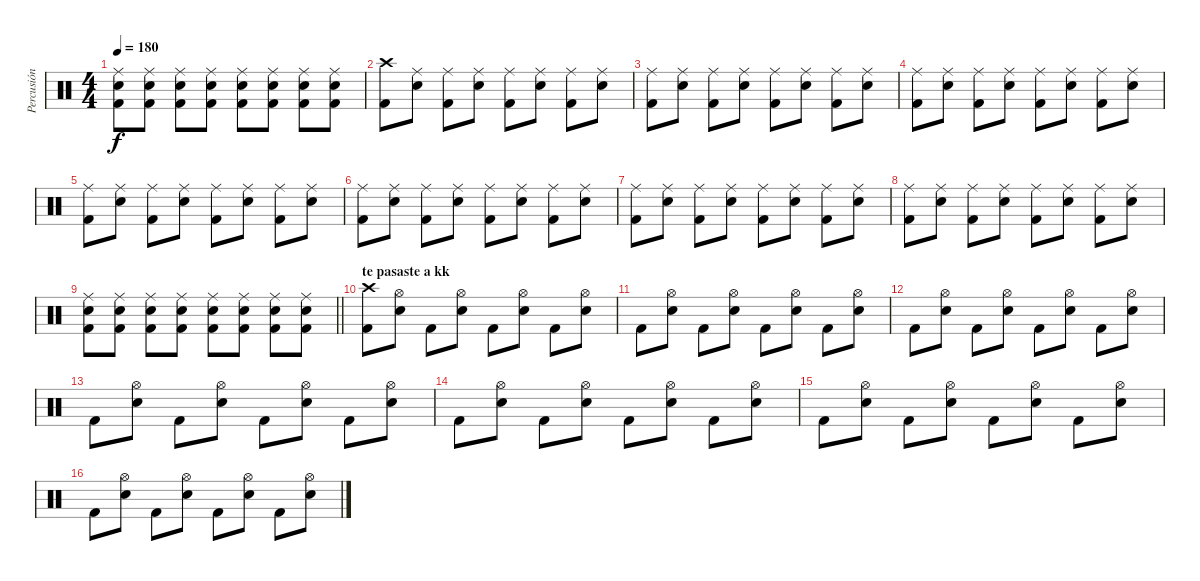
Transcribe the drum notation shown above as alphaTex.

\track ("Percusión" "Percusión") {instrument percussion}
\staff {score}
\articulation defaults
\ts (4 4)
\tempo 180
\clef neutral
\ks c
("Ride (middle)" "Electric Snare (hit)" "Kick (hit) 2").8{dy f} ("Ride (middle)" "Electric Snare (hit)" "Kick (hit) 2").8 ("Ride (middle)" "Electric Snare (hit)" "Kick (hit) 2").8 ("Ride (middle)" "Electric Snare (hit)" "Kick (hit) 2").8 ("Ride (middle)" "Electric Snare (hit)" "Kick (hit) 2").8 ("Ride (middle)" "Electric Snare (hit)" "Kick (hit) 2").8 ("Ride (middle)" "Electric Snare (hit)" "Kick (hit) 2").8 ("Ride (middle)" "Electric Snare (hit)" "Kick (hit) 2").8 |
("Crash high (hit)" "Kick (hit) 2").8 ("Ride (middle)" "Electric Snare (hit)").8 ("Ride (middle)" "Kick (hit) 2").8 ("Ride (middle)" "Electric Snare (hit)").8 ("Ride (middle)" "Kick (hit) 2").8 ("Ride (middle)" "Electric Snare (hit)").8 ("Ride (middle)" "Kick (hit) 2").8 ("Ride (middle)" "Electric Snare (hit)").8 |
("Ride (middle)" "Kick (hit) 2").8 ("Ride (middle)" "Electric Snare (hit)").8 ("Ride (middle)" "Kick (hit) 2").8 ("Ride (middle)" "Electric Snare (hit)").8 ("Ride (middle)" "Kick (hit) 2").8 ("Ride (middle)" "Electric Snare (hit)").8 ("Ride (middle)" "Kick (hit) 2").8 ("Ride (middle)" "Electric Snare (hit)").8 |
("Ride (middle)" "Kick (hit) 2").8 ("Ride (middle)" "Electric Snare (hit)").8 ("Ride (middle)" "Kick (hit) 2").8 ("Ride (middle)" "Electric Snare (hit)").8 ("Ride (middle)" "Kick (hit) 2").8 ("Ride (middle)" "Electric Snare (hit)").8 ("Ride (middle)" "Kick (hit) 2").8 ("Ride (middle)" "Electric Snare (hit)").8 |
("Ride (middle)" "Kick (hit) 2").8 ("Ride (middle)" "Electric Snare (hit)").8 ("Ride (middle)" "Kick (hit) 2").8 ("Ride (middle)" "Electric Snare (hit)").8 ("Ride (middle)" "Kick (hit) 2").8 ("Ride (middle)" "Electric Snare (hit)").8 ("Ride (middle)" "Kick (hit) 2").8 ("Ride (middle)" "Electric Snare (hit)").8 |
("Ride (middle)" "Kick (hit) 2").8 ("Ride (middle)" "Electric Snare (hit)").8 ("Ride (middle)" "Kick (hit) 2").8 ("Ride (middle)" "Electric Snare (hit)").8 ("Ride (middle)" "Kick (hit) 2").8 ("Ride (middle)" "Electric Snare (hit)").8 ("Ride (middle)" "Kick (hit) 2").8 ("Ride (middle)" "Electric Snare (hit)").8 |
("Ride (middle)" "Kick (hit) 2").8 ("Ride (middle)" "Electric Snare (hit)").8 ("Ride (middle)" "Kick (hit) 2").8 ("Ride (middle)" "Electric Snare (hit)").8 ("Ride (middle)" "Kick (hit) 2").8 ("Ride (middle)" "Electric Snare (hit)").8 ("Ride (middle)" "Kick (hit) 2").8 ("Ride (middle)" "Electric Snare (hit)").8 |
("Ride (middle)" "Kick (hit) 2").8 ("Ride (middle)" "Electric Snare (hit)").8 ("Ride (middle)" "Kick (hit) 2").8 ("Ride (middle)" "Electric Snare (hit)").8 ("Ride (middle)" "Kick (hit) 2").8 ("Ride (middle)" "Electric Snare (hit)").8 ("Ride (middle)" "Kick (hit) 2").8 ("Ride (middle)" "Electric Snare (hit)").8 |
\barLineRight lightlight
("Ride (middle)" "Electric Snare (hit)" "Kick (hit) 2").8 ("Ride (middle)" "Electric Snare (hit)" "Kick (hit) 2").8 ("Ride (middle)" "Electric Snare (hit)" "Kick (hit) 2").8 ("Ride (middle)" "Electric Snare (hit)" "Kick (hit) 2").8 ("Ride (middle)" "Electric Snare (hit)" "Kick (hit) 2").8 ("Ride (middle)" "Electric Snare (hit)" "Kick (hit) 2").8 ("Ride (middle)" "Electric Snare (hit)" "Kick (hit) 2").8 ("Ride (middle)" "Electric Snare (hit)" "Kick (hit) 2").8 |
\section ("" "te pasaste a kk")
("Crash high (hit)" "Kick (hit) 2").8 ("Hi-Hat (open)" "Electric Snare (hit)").8 "Kick (hit) 2".8 ("Hi-Hat (open)" "Electric Snare (hit)").8 "Kick (hit) 2".8 ("Hi-Hat (open)" "Electric Snare (hit)").8 "Kick (hit) 2".8 ("Hi-Hat (open)" "Electric Snare (hit)").8 |
"Kick (hit) 2".8 ("Hi-Hat (open)" "Electric Snare (hit)").8 "Kick (hit) 2".8 ("Hi-Hat (open)" "Electric Snare (hit)").8 "Kick (hit) 2".8 ("Hi-Hat (open)" "Electric Snare (hit)").8 "Kick (hit) 2".8 ("Hi-Hat (open)" "Electric Snare (hit)").8 |
"Kick (hit) 2".8 ("Hi-Hat (open)" "Electric Snare (hit)").8 "Kick (hit) 2".8 ("Hi-Hat (open)" "Electric Snare (hit)").8 "Kick (hit) 2".8 ("Hi-Hat (open)" "Electric Snare (hit)").8 "Kick (hit) 2".8 ("Hi-Hat (open)" "Electric Snare (hit)").8 |
"Kick (hit) 2".8 ("Hi-Hat (open)" "Electric Snare (hit)").8 "Kick (hit) 2".8 ("Hi-Hat (open)" "Electric Snare (hit)").8 "Kick (hit) 2".8 ("Hi-Hat (open)" "Electric Snare (hit)").8 "Kick (hit) 2".8 ("Hi-Hat (open)" "Electric Snare (hit)").8 |
"Kick (hit) 2".8 ("Hi-Hat (open)" "Electric Snare (hit)").8 "Kick (hit) 2".8 ("Hi-Hat (open)" "Electric Snare (hit)").8 "Kick (hit) 2".8 ("Hi-Hat (open)" "Electric Snare (hit)").8 "Kick (hit) 2".8 ("Hi-Hat (open)" "Electric Snare (hit)").8 |
"Kick (hit) 2".8 ("Hi-Hat (open)" "Electric Snare (hit)").8 "Kick (hit) 2".8 ("Hi-Hat (open)" "Electric Snare (hit)").8 "Kick (hit) 2".8 ("Hi-Hat (open)" "Electric Snare (hit)").8 "Kick (hit) 2".8 ("Hi-Hat (open)" "Electric Snare (hit)").8 |
"Kick (hit) 2".8 ("Hi-Hat (open)" "Electric Snare (hit)").8 "Kick (hit) 2".8 ("Hi-Hat (open)" "Electric Snare (hit)").8 "Kick (hit) 2".8 ("Hi-Hat (open)" "Electric Snare (hit)").8 "Kick (hit) 2".8 ("Hi-Hat (open)" "Electric Snare (hit)").8
